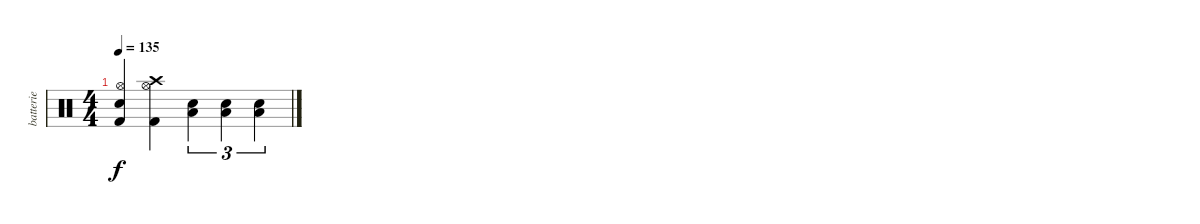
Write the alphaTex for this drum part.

\track ("batterie" "batterie") {instrument percussion}
\staff {score}
\articulation defaults
\ts (4 4)
\tempo 135
\clef neutral
\ks c
("Snare (hit) 2" "Hi-Hat (open)" "Kick (hit) 2").4{dy f} ("Crash high (hit)" "Hi-Hat (open)" "Kick (hit) 2").4 ("Electric Snare (hit)" "Low Floor Tom (hit)").4{tu (3 2)} ("Electric Snare (hit)" "Low Floor Tom (hit)").4{tu (3 2)} ("Electric Snare (hit)" "Low Floor Tom (hit)").4{tu (3 2)}
